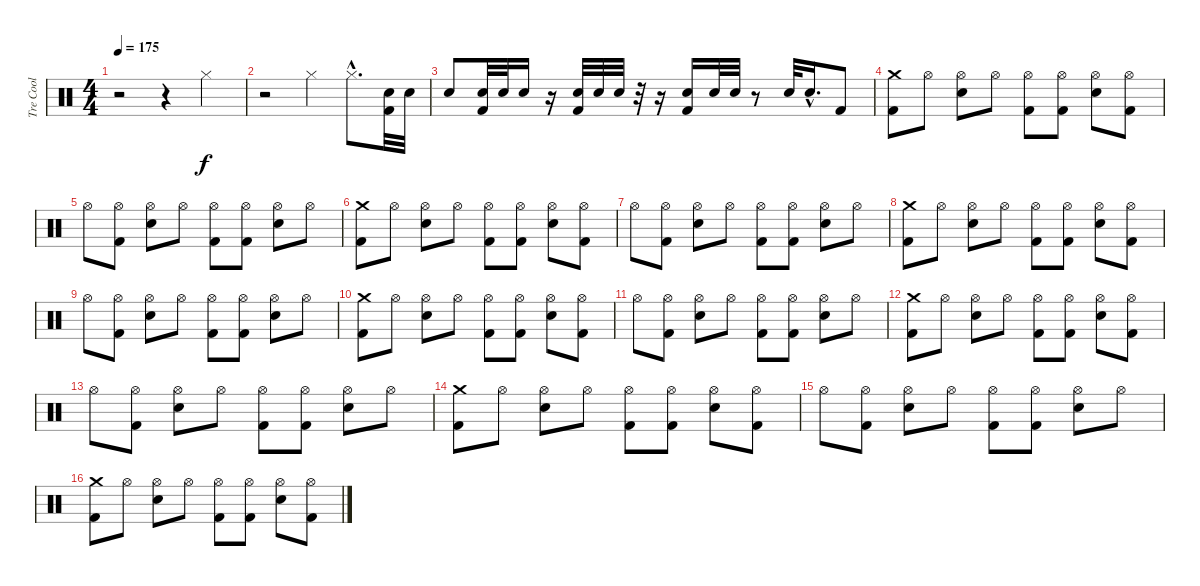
\track ("Tre Cool" "Tre Cool") {instrument percussion}
\staff {score}
\articulation defaults
\ts (4 4)
\tempo 175
\clef neutral
\ks c
r.2{dy f} r.4 "Hi-Hat (closed)".4 |
r.2 "Hi-Hat (closed)".4 "Hi-Hat (closed)"{hac}.8{d} ("Kick (hit) 2" "Snare (hit) 2").32 "Snare (hit) 2".32 |
"Snare (hit) 2".8 ("Kick (hit) 2" "Snare (hit) 2").32 "Snare (hit) 2".32 "Snare (hit) 2".16 r.16 ("Kick (hit) 2" "Snare (hit) 2").32 "Snare (hit) 2".32 "Snare (hit) 2".32 r.32 r.16 ("Kick (hit) 2" "Snare (hit) 2").16 "Snare (hit) 2".32 "Snare (hit) 2".32 r.8 "Snare (hit) 2".32 "Snare (hit) 2"{hac}.16{d} "Kick (hit) 2".8 |
("Kick (hit) 2" "Crash medium (hit)").8 "Hi-Hat (open)".8 ("Snare (hit) 2" "Hi-Hat (open)").8 "Hi-Hat (open)".8 ("Kick (hit) 2" "Hi-Hat (open)").8 ("Kick (hit) 2" "Hi-Hat (open)").8 ("Snare (hit) 2" "Hi-Hat (open)").8 ("Kick (hit) 2" "Hi-Hat (open)").8 |
"Hi-Hat (open)".8 ("Kick (hit) 2" "Hi-Hat (open)").8 ("Snare (hit) 2" "Hi-Hat (open)").8 "Hi-Hat (open)".8 ("Kick (hit) 2" "Hi-Hat (open)").8 ("Kick (hit) 2" "Hi-Hat (open)").8 ("Snare (hit) 2" "Hi-Hat (open)").8 "Hi-Hat (open)".8 |
("Kick (hit) 2" "Crash medium (hit)").8 "Hi-Hat (open)".8 ("Snare (hit) 2" "Hi-Hat (open)").8 "Hi-Hat (open)".8 ("Kick (hit) 2" "Hi-Hat (open)").8 ("Kick (hit) 2" "Hi-Hat (open)").8 ("Snare (hit) 2" "Hi-Hat (open)").8 ("Kick (hit) 2" "Hi-Hat (open)").8 |
"Hi-Hat (open)".8 ("Kick (hit) 2" "Hi-Hat (open)").8 ("Snare (hit) 2" "Hi-Hat (open)").8 "Hi-Hat (open)".8 ("Kick (hit) 2" "Hi-Hat (open)").8 ("Kick (hit) 2" "Hi-Hat (open)").8 ("Snare (hit) 2" "Hi-Hat (open)").8 "Hi-Hat (open)".8 |
("Kick (hit) 2" "Crash medium (hit)").8 "Hi-Hat (open)".8 ("Snare (hit) 2" "Hi-Hat (open)").8 "Hi-Hat (open)".8 ("Kick (hit) 2" "Hi-Hat (open)").8 ("Kick (hit) 2" "Hi-Hat (open)").8 ("Snare (hit) 2" "Hi-Hat (open)").8 ("Kick (hit) 2" "Hi-Hat (open)").8 |
"Hi-Hat (open)".8 ("Kick (hit) 2" "Hi-Hat (open)").8 ("Snare (hit) 2" "Hi-Hat (open)").8 "Hi-Hat (open)".8 ("Kick (hit) 2" "Hi-Hat (open)").8 ("Kick (hit) 2" "Hi-Hat (open)").8 ("Snare (hit) 2" "Hi-Hat (open)").8 "Hi-Hat (open)".8 |
("Kick (hit) 2" "Crash medium (hit)").8 "Hi-Hat (open)".8 ("Snare (hit) 2" "Hi-Hat (open)").8 "Hi-Hat (open)".8 ("Kick (hit) 2" "Hi-Hat (open)").8 ("Kick (hit) 2" "Hi-Hat (open)").8 ("Snare (hit) 2" "Hi-Hat (open)").8 ("Kick (hit) 2" "Hi-Hat (open)").8 |
"Hi-Hat (open)".8 ("Kick (hit) 2" "Hi-Hat (open)").8 ("Snare (hit) 2" "Hi-Hat (open)").8 "Hi-Hat (open)".8 ("Kick (hit) 2" "Hi-Hat (open)").8 ("Kick (hit) 2" "Hi-Hat (open)").8 ("Snare (hit) 2" "Hi-Hat (open)").8 "Hi-Hat (open)".8 |
("Kick (hit) 2" "Crash medium (hit)").8 "Hi-Hat (open)".8 ("Snare (hit) 2" "Hi-Hat (open)").8 "Hi-Hat (open)".8 ("Kick (hit) 2" "Hi-Hat (open)").8 ("Kick (hit) 2" "Hi-Hat (open)").8 ("Snare (hit) 2" "Hi-Hat (open)").8 ("Kick (hit) 2" "Hi-Hat (open)").8 |
"Hi-Hat (open)".8 ("Kick (hit) 2" "Hi-Hat (open)").8 ("Snare (hit) 2" "Hi-Hat (open)").8 "Hi-Hat (open)".8 ("Kick (hit) 2" "Hi-Hat (open)").8 ("Kick (hit) 2" "Hi-Hat (open)").8 ("Snare (hit) 2" "Hi-Hat (open)").8 "Hi-Hat (open)".8 |
("Kick (hit) 2" "Crash medium (hit)").8 "Hi-Hat (open)".8 ("Snare (hit) 2" "Hi-Hat (open)").8 "Hi-Hat (open)".8 ("Kick (hit) 2" "Hi-Hat (open)").8 ("Kick (hit) 2" "Hi-Hat (open)").8 ("Snare (hit) 2" "Hi-Hat (open)").8 ("Kick (hit) 2" "Hi-Hat (open)").8 |
"Hi-Hat (open)".8 ("Kick (hit) 2" "Hi-Hat (open)").8 ("Snare (hit) 2" "Hi-Hat (open)").8 "Hi-Hat (open)".8 ("Kick (hit) 2" "Hi-Hat (open)").8 ("Kick (hit) 2" "Hi-Hat (open)").8 ("Snare (hit) 2" "Hi-Hat (open)").8 "Hi-Hat (open)".8 |
("Kick (hit) 2" "Crash medium (hit)").8 "Hi-Hat (open)".8 ("Snare (hit) 2" "Hi-Hat (open)").8 "Hi-Hat (open)".8 ("Kick (hit) 2" "Hi-Hat (open)").8 ("Kick (hit) 2" "Hi-Hat (open)").8 ("Snare (hit) 2" "Hi-Hat (open)").8 ("Kick (hit) 2" "Hi-Hat (open)").8
